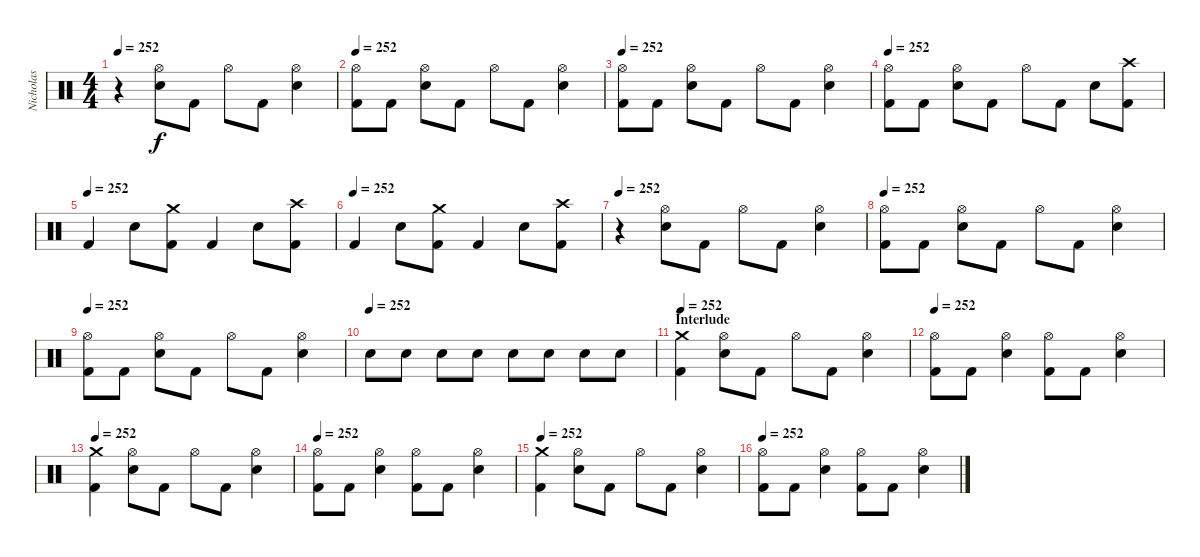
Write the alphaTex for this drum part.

\track ("Nicholas" "Nicholas") {instrument percussion}
\staff {score}
\articulation defaults
\ts (4 4)
\tempo 252
\clef neutral
\ks c
r.4{dy f} ("Hi-Hat (open)" "Snare (hit) 2").8 "Kick (hit) 2".8 "Hi-Hat (open)".8 "Kick (hit) 2".8 ("Hi-Hat (open)" "Snare (hit) 2").4 |
\tempo 252
("Hi-Hat (open)" "Kick (hit) 2").8 "Kick (hit) 2".8 ("Hi-Hat (open)" "Snare (hit) 2").8 "Kick (hit) 2".8 "Hi-Hat (open)".8 "Kick (hit) 2".8 ("Hi-Hat (open)" "Snare (hit) 2").4 |
\tempo 252
("Hi-Hat (open)" "Kick (hit) 2").8 "Kick (hit) 2".8 ("Hi-Hat (open)" "Snare (hit) 2").8 "Kick (hit) 2".8 "Hi-Hat (open)".8 "Kick (hit) 2".8 ("Hi-Hat (open)" "Snare (hit) 2").4 |
\tempo 252
("Hi-Hat (open)" "Kick (hit) 2").8 "Kick (hit) 2".8 ("Hi-Hat (open)" "Snare (hit) 2").8 "Kick (hit) 2".8 "Hi-Hat (open)".8 "Kick (hit) 2".8 "Snare (hit) 2".8 ("Crash high (hit)" "Kick (hit) 2").8 |
\tempo (252)
"Kick (hit) 2".4 "Snare (hit) 2".8 ("Crash medium (hit)" "Kick (hit) 2").8 "Kick (hit) 2".4 "Snare (hit) 2".8 ("Crash high (hit)" "Kick (hit) 2").8 |
\tempo (252)
"Kick (hit) 2".4 "Snare (hit) 2".8 ("Crash medium (hit)" "Kick (hit) 2").8 "Kick (hit) 2".4 "Snare (hit) 2".8 ("Crash high (hit)" "Kick (hit) 2").8 |
\tempo 252
r.4 ("Hi-Hat (open)" "Snare (hit) 2").8 "Kick (hit) 2".8 "Hi-Hat (open)".8 "Kick (hit) 2".8 ("Hi-Hat (open)" "Snare (hit) 2").4 |
\tempo 252
("Hi-Hat (open)" "Kick (hit) 2").8 "Kick (hit) 2".8 ("Hi-Hat (open)" "Snare (hit) 2").8 "Kick (hit) 2".8 "Hi-Hat (open)".8 "Kick (hit) 2".8 ("Hi-Hat (open)" "Snare (hit) 2").4 |
\tempo 252
("Hi-Hat (open)" "Kick (hit) 2").8 "Kick (hit) 2".8 ("Hi-Hat (open)" "Snare (hit) 2").8 "Kick (hit) 2".8 "Hi-Hat (open)".8 "Kick (hit) 2".8 ("Hi-Hat (open)" "Snare (hit) 2").4 |
\tempo (252)
"Snare (hit) 2".8 "Snare (hit) 2".8 "Snare (hit) 2".8 "Snare (hit) 2".8 "Snare (hit) 2".8 "Snare (hit) 2".8 "Snare (hit) 2".8 "Snare (hit) 2".8 |
\section ("" "Interlude")
\tempo 252
("Crash medium (hit)" "Kick (hit) 2").4 ("Hi-Hat (open)" "Snare (hit) 2").8 "Kick (hit) 2".8 "Hi-Hat (open)".8 "Kick (hit) 2".8 ("Hi-Hat (open)" "Snare (hit) 2").4 |
\tempo 252
("Hi-Hat (open)" "Kick (hit) 2").8 "Kick (hit) 2".8 ("Hi-Hat (open)" "Snare (hit) 2").4 ("Hi-Hat (open)" "Kick (hit) 2").8 "Kick (hit) 2".8 ("Hi-Hat (open)" "Snare (hit) 2").4 |
\tempo 252
("Crash medium (hit)" "Kick (hit) 2").4 ("Hi-Hat (open)" "Snare (hit) 2").8 "Kick (hit) 2".8 "Hi-Hat (open)".8 "Kick (hit) 2".8 ("Hi-Hat (open)" "Snare (hit) 2").4 |
\tempo 252
("Hi-Hat (open)" "Kick (hit) 2").8 "Kick (hit) 2".8 ("Hi-Hat (open)" "Snare (hit) 2").4 ("Hi-Hat (open)" "Kick (hit) 2").8 "Kick (hit) 2".8 ("Hi-Hat (open)" "Snare (hit) 2").4 |
\tempo 252
("Crash medium (hit)" "Kick (hit) 2").4 ("Hi-Hat (open)" "Snare (hit) 2").8 "Kick (hit) 2".8 "Hi-Hat (open)".8 "Kick (hit) 2".8 ("Hi-Hat (open)" "Snare (hit) 2").4 |
\tempo 252
("Hi-Hat (open)" "Kick (hit) 2").8 "Kick (hit) 2".8 ("Hi-Hat (open)" "Snare (hit) 2").4 ("Hi-Hat (open)" "Kick (hit) 2").8 "Kick (hit) 2".8 ("Hi-Hat (open)" "Snare (hit) 2").4
